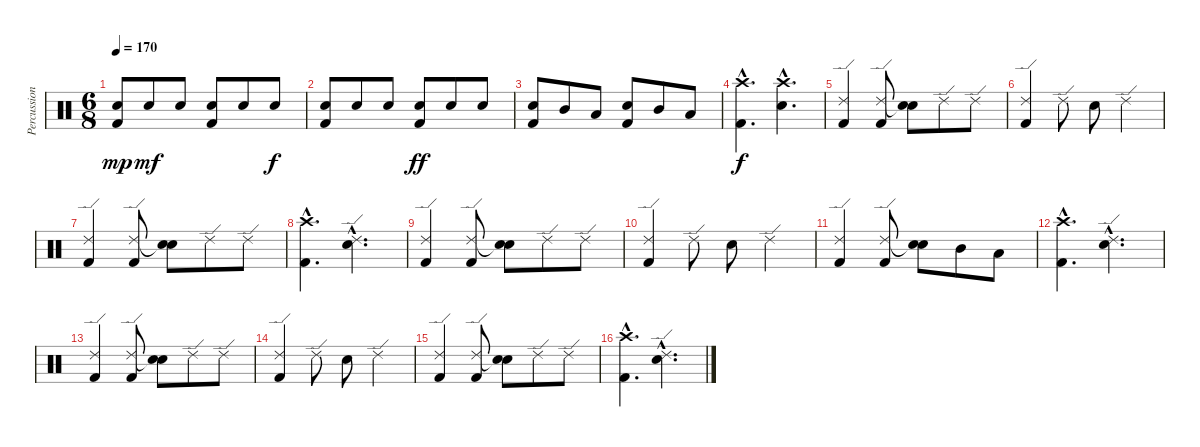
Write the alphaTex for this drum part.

\track ("Percussion" "Percussion") {instrument percussion}
\staff {score}
\articulation defaults
\ts (6 8)
\tempo 170
\clef neutral
\ks c
("Electric Snare (hit)" "Kick (hit) 2").8{dy mp} "Electric Snare (hit)".8{dy mf} "Electric Snare (hit)".8 ("Electric Snare (hit)" "Kick (hit) 2").8 "Electric Snare (hit)".8 "Electric Snare (hit)".8{dy f} |
("Electric Snare (hit)" "Kick (hit) 2").8 "Electric Snare (hit)".8 "Electric Snare (hit)".8 ("Electric Snare (hit)" "Kick (hit) 2").8{dy ff} "Electric Snare (hit)".8 "Electric Snare (hit)".8 |
("Electric Snare (hit)" "Kick (hit) 2").8 "Mid Tom (hit)".8 "Low Tom (hit)".8 ("Electric Snare (hit)" "Kick (hit) 2").8 "Mid Tom (hit)".8 "Low Tom (hit)".8 |
("Crash high (hit)"{hac} "Kick (hit) 2"{hac}).4{d dy f} ("Crash high (hit)"{hac} "Electric Snare (hit)"{hac}).4{d} |
("Ride (edge) 2" "Kick (hit) 2").4 ("Ride (edge) 2" "Kick (hit) 2").8 ("Snare (hit)"{t} "Electric Snare (hit)").8 "Ride (edge) 2".8 "Ride (edge) 2".8 |
("Ride (edge) 2" "Kick (hit) 2").4 "Ride (edge) 2".8 "Electric Snare (hit)".8 "Ride (edge) 2".4 |
("Ride (edge) 2" "Kick (hit) 2").4 ("Ride (edge) 2" "Kick (hit) 2").8 ("Snare (hit)"{t} "Electric Snare (hit)").8 "Ride (edge) 2".8 "Ride (edge) 2".8 |
("Crash high (hit)"{hac} "Kick (hit) 2"{hac}).4{d} ("Ride (edge) 2"{hac} "Electric Snare (hit)"{hac}).4{d} |
("Ride (edge) 2" "Kick (hit) 2").4 ("Ride (edge) 2" "Kick (hit) 2").8 ("Snare (hit)"{t} "Electric Snare (hit)").8 "Ride (edge) 2".8 "Ride (edge) 2".8 |
("Ride (edge) 2" "Kick (hit) 2").4 "Ride (edge) 2".8 "Electric Snare (hit)".8 "Ride (edge) 2".4 |
("Ride (edge) 2" "Kick (hit) 2").4 ("Ride (edge) 2" "Kick (hit) 2").8 ("Snare (hit)"{t} "Electric Snare (hit)").8 "Mid Tom (hit)".8 "Low Tom (hit)".8 |
("Crash high (hit)"{hac} "Kick (hit) 2"{hac}).4{d} ("Ride (edge) 2"{hac} "Electric Snare (hit)"{hac}).4{d} |
("Ride (edge) 2" "Kick (hit) 2").4 ("Ride (edge) 2" "Kick (hit) 2").8 ("Snare (hit)"{t} "Electric Snare (hit)").8 "Ride (edge) 2".8 "Ride (edge) 2".8 |
("Ride (edge) 2" "Kick (hit) 2").4 "Ride (edge) 2".8 "Electric Snare (hit)".8 "Ride (edge) 2".4 |
("Ride (edge) 2" "Kick (hit) 2").4 ("Ride (edge) 2" "Kick (hit) 2").8 ("Snare (hit)"{t} "Electric Snare (hit)").8 "Ride (edge) 2".8 "Ride (edge) 2".8 |
("Crash high (hit)"{hac} "Kick (hit) 2"{hac}).4{d} ("Ride (edge) 2"{hac} "Electric Snare (hit)"{hac}).4{d}
